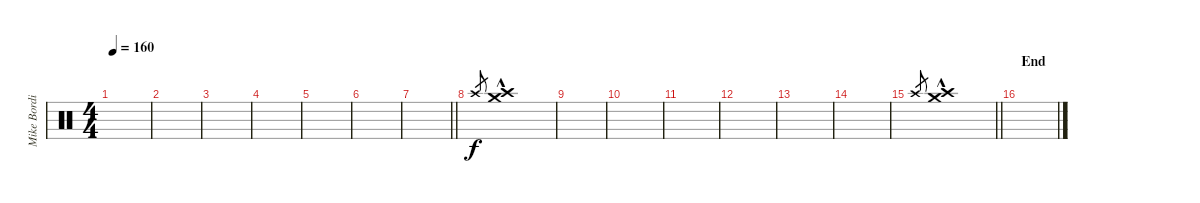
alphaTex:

\track ("Mike Bordin - Percussion Crash" "Mike Bordi") {instrument percussion}
\staff {score}
\articulation defaults
\ts (4 4)
\tempo 160
\clef neutral
\ks c
|
|
|
|
|
|
\barLineRight lightlight
|
\section ("" "")
"Crash high (hit)".8{gr} ("Crash high (hit)"{hac} "Crash medium (hit)").1{volume 16} |
|
|
|
|
|
|
\barLineRight lightlight "Crash high (hit)".8{gr}
("Crash high (hit)"{hac} "Crash medium (hit)").1{volume 16} |
\section ("" "End")
